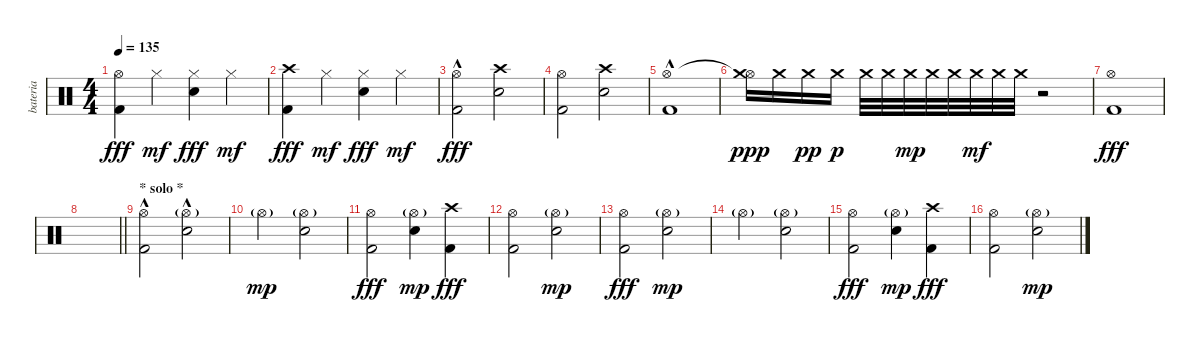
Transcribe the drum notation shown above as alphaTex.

\track ("bateria" "bateria") {instrument percussion}
\staff {score}
\articulation defaults
\ts (4 4)
\tempo 135
\clef neutral
\ks c
("Hi-Hat (open)" "Kick (hit) 2").4{dy fff} "Hi-Hat (closed)".4{dy mf} ("Hi-Hat (closed)" "Snare (hit) 2").4{dy fff} "Hi-Hat (closed)".4{dy mf} |
("Crash high (hit)" "Kick (hit) 2").4{dy fff} "Hi-Hat (closed)".4{dy mf} ("Hi-Hat (closed)" "Snare (hit) 2").4{dy fff} "Hi-Hat (closed)".4{dy mf} |
("Hi-Hat (open)"{hac} "Kick (hit) 2").2{dy fff} ("Crash high (hit)" "Snare (hit) 2").2 |
("Hi-Hat (open)" "Kick (hit) 2").2 ("Crash high (hit)" "Snare (hit) 2").2 |
("Hi-Hat (open)" "Kick (hit) 2"{hac}).1 |
("Hi-Hat (open)"{t} "Crash medium (hit)").16{dy ppp} "Crash medium (hit)".16 "Crash medium (hit)".16{dy pp} "Crash medium (hit)".16{dy p} "Crash medium (hit)".32 "Crash medium (hit)".32 "Crash medium (hit)".32{dy mp} "Crash medium (hit)".32 "Crash medium (hit)".32 "Crash medium (hit)".32{dy mf} "Crash medium (hit)".32 "Crash medium (hit)".32 r.2 |
("Hi-Hat (open)" "Kick (hit) 2").1{dy fff} |
\barLineRight lightlight
|
\section ("" "* solo *")
("Hi-Hat (open)" "Kick (hit) 2"{hac}).2 ("Hi-Hat (open)"{g} "Snare (hit) 2"{hac}).2 |
"Hi-Hat (open)"{g}.2{dy mp} ("Hi-Hat (open)"{g} "Snare (hit) 2").2 |
("Hi-Hat (open)" "Kick (hit) 2").2{dy fff} ("Hi-Hat (open)"{g} "Snare (hit) 2").4{dy mp} ("Crash high (hit)" "Kick (hit) 2").4{dy fff} |
("Hi-Hat (open)" "Kick (hit) 2").2 ("Hi-Hat (open)"{g} "Snare (hit) 2").2{dy mp} |
("Hi-Hat (open)" "Kick (hit) 2").2{dy fff} ("Hi-Hat (open)"{g} "Snare (hit) 2").2{dy mp} |
"Hi-Hat (open)"{g}.2 ("Hi-Hat (open)"{g} "Snare (hit) 2").2 |
("Hi-Hat (open)" "Kick (hit) 2").2{dy fff} ("Hi-Hat (open)"{g} "Snare (hit) 2").4{dy mp} ("Crash high (hit)" "Kick (hit) 2").4{dy fff} |
("Hi-Hat (open)" "Kick (hit) 2").2 ("Hi-Hat (open)"{g} "Snare (hit) 2").2{dy mp}
